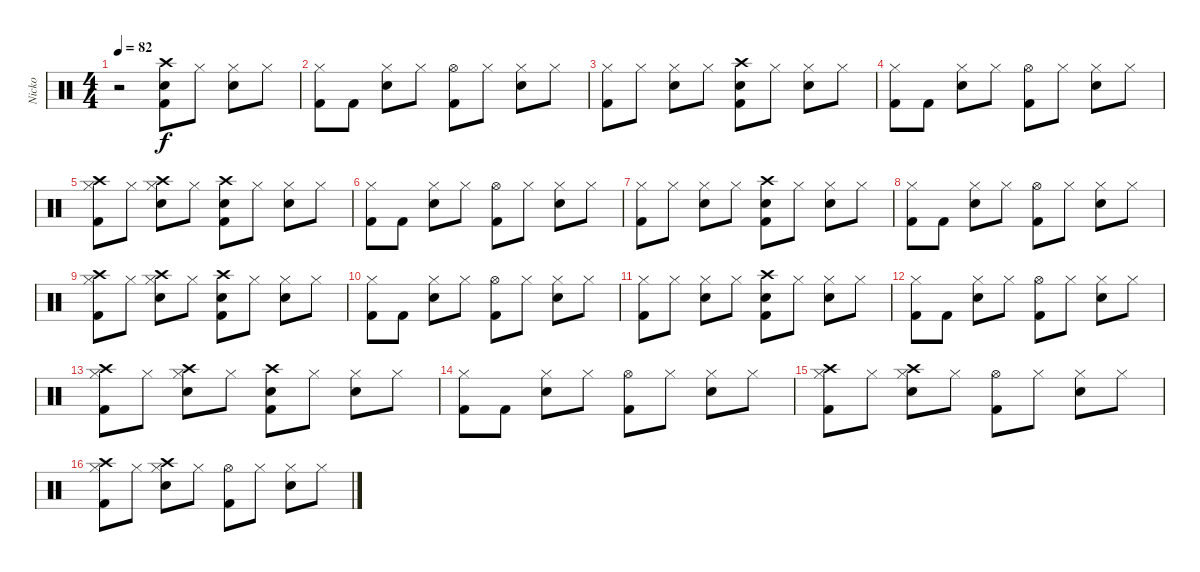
\track ("Nicko" "Nicko") {instrument percussion}
\staff {score}
\articulation defaults
\ts (4 4)
\tempo 82
\clef neutral
\ks c
r.2{dy f} ("Kick (hit) 2" "Snare (hit) 2" "Crash high (hit)").8 "Hi-Hat (closed)".8 ("Snare (hit) 2" "Hi-Hat (closed)").8 "Hi-Hat (closed)".8 |
("Kick (hit) 2" "Hi-Hat (closed)").8 "Kick (hit) 2".8 ("Snare (hit) 2" "Hi-Hat (closed)").8 "Hi-Hat (closed)".8 ("Kick (hit) 2" "Hi-Hat (open)").8 "Hi-Hat (closed)".8 ("Snare (hit) 2" "Hi-Hat (closed)").8 "Hi-Hat (closed)".8 |
("Kick (hit) 2" "Hi-Hat (closed)").8 "Hi-Hat (closed)".8 ("Snare (hit) 2" "Hi-Hat (closed)").8 "Hi-Hat (closed)".8 ("Kick (hit) 2" "Snare (hit) 2" "Crash high (hit)").8 "Hi-Hat (closed)".8 ("Snare (hit) 2" "Hi-Hat (closed)").8 "Hi-Hat (closed)".8 |
("Kick (hit) 2" "Hi-Hat (closed)").8 "Kick (hit) 2".8 ("Snare (hit) 2" "Hi-Hat (closed)").8 "Hi-Hat (closed)".8 ("Kick (hit) 2" "Hi-Hat (open)").8 "Hi-Hat (closed)".8 ("Snare (hit) 2" "Hi-Hat (closed)").8 "Hi-Hat (closed)".8 |
("Kick (hit) 2" "Hi-Hat (closed)" "Crash high (hit)").8 "Hi-Hat (closed)".8 ("Snare (hit) 2" "Hi-Hat (closed)" "Crash high (hit)").8 "Hi-Hat (closed)".8 ("Kick (hit) 2" "Snare (hit) 2" "Crash high (hit)").8 "Hi-Hat (closed)".8 ("Snare (hit) 2" "Hi-Hat (closed)").8 "Hi-Hat (closed)".8 |
("Kick (hit) 2" "Hi-Hat (closed)").8 "Kick (hit) 2".8 ("Snare (hit) 2" "Hi-Hat (closed)").8 "Hi-Hat (closed)".8 ("Kick (hit) 2" "Hi-Hat (open)").8 "Hi-Hat (closed)".8 ("Snare (hit) 2" "Hi-Hat (closed)").8 "Hi-Hat (closed)".8 |
("Kick (hit) 2" "Hi-Hat (closed)").8 "Hi-Hat (closed)".8 ("Snare (hit) 2" "Hi-Hat (closed)").8 "Hi-Hat (closed)".8 ("Kick (hit) 2" "Snare (hit) 2" "Crash high (hit)").8 "Hi-Hat (closed)".8 ("Snare (hit) 2" "Hi-Hat (closed)").8 "Hi-Hat (closed)".8 |
("Kick (hit) 2" "Hi-Hat (closed)").8 "Kick (hit) 2".8 ("Snare (hit) 2" "Hi-Hat (closed)").8 "Hi-Hat (closed)".8 ("Kick (hit) 2" "Hi-Hat (open)").8 "Hi-Hat (closed)".8 ("Snare (hit) 2" "Hi-Hat (closed)").8 "Hi-Hat (closed)".8 |
("Kick (hit) 2" "Hi-Hat (closed)" "Crash high (hit)").8 "Hi-Hat (closed)".8 ("Snare (hit) 2" "Hi-Hat (closed)" "Crash high (hit)").8 "Hi-Hat (closed)".8 ("Kick (hit) 2" "Snare (hit) 2" "Crash high (hit)").8 "Hi-Hat (closed)".8 ("Snare (hit) 2" "Hi-Hat (closed)").8 "Hi-Hat (closed)".8 |
("Kick (hit) 2" "Hi-Hat (closed)").8 "Kick (hit) 2".8 ("Snare (hit) 2" "Hi-Hat (closed)").8 "Hi-Hat (closed)".8 ("Kick (hit) 2" "Hi-Hat (open)").8 "Hi-Hat (closed)".8 ("Snare (hit) 2" "Hi-Hat (closed)").8 "Hi-Hat (closed)".8 |
("Kick (hit) 2" "Hi-Hat (closed)").8 "Hi-Hat (closed)".8 ("Snare (hit) 2" "Hi-Hat (closed)").8 "Hi-Hat (closed)".8 ("Kick (hit) 2" "Snare (hit) 2" "Crash high (hit)").8 "Hi-Hat (closed)".8 ("Snare (hit) 2" "Hi-Hat (closed)").8 "Hi-Hat (closed)".8 |
("Kick (hit) 2" "Hi-Hat (closed)").8 "Kick (hit) 2".8 ("Snare (hit) 2" "Hi-Hat (closed)").8 "Hi-Hat (closed)".8 ("Kick (hit) 2" "Hi-Hat (open)").8 "Hi-Hat (closed)".8 ("Snare (hit) 2" "Hi-Hat (closed)").8 "Hi-Hat (closed)".8 |
("Kick (hit) 2" "Hi-Hat (closed)" "Crash high (hit)").8 "Hi-Hat (closed)".8 ("Snare (hit) 2" "Hi-Hat (closed)" "Crash high (hit)").8 "Hi-Hat (closed)".8 ("Kick (hit) 2" "Snare (hit) 2" "Crash high (hit)").8 "Hi-Hat (closed)".8 ("Snare (hit) 2" "Hi-Hat (closed)").8 "Hi-Hat (closed)".8 |
("Kick (hit) 2" "Hi-Hat (closed)").8 "Kick (hit) 2".8 ("Snare (hit) 2" "Hi-Hat (closed)").8 "Hi-Hat (closed)".8 ("Kick (hit) 2" "Hi-Hat (open)").8 "Hi-Hat (closed)".8 ("Snare (hit) 2" "Hi-Hat (closed)").8 "Hi-Hat (closed)".8 |
("Kick (hit) 2" "Hi-Hat (closed)" "Crash high (hit)").8 "Hi-Hat (closed)".8 ("Snare (hit) 2" "Hi-Hat (closed)" "Crash high (hit)").8 "Hi-Hat (closed)".8 ("Kick (hit) 2" "Hi-Hat (open)").8 "Hi-Hat (closed)".8 ("Snare (hit) 2" "Hi-Hat (closed)").8 "Hi-Hat (closed)".8 |
("Kick (hit) 2" "Hi-Hat (closed)" "Crash high (hit)").8 "Hi-Hat (closed)".8 ("Snare (hit) 2" "Hi-Hat (closed)" "Crash high (hit)").8 "Hi-Hat (closed)".8 ("Kick (hit) 2" "Hi-Hat (open)").8 "Hi-Hat (closed)".8 ("Snare (hit) 2" "Hi-Hat (closed)").8 "Hi-Hat (closed)".8
